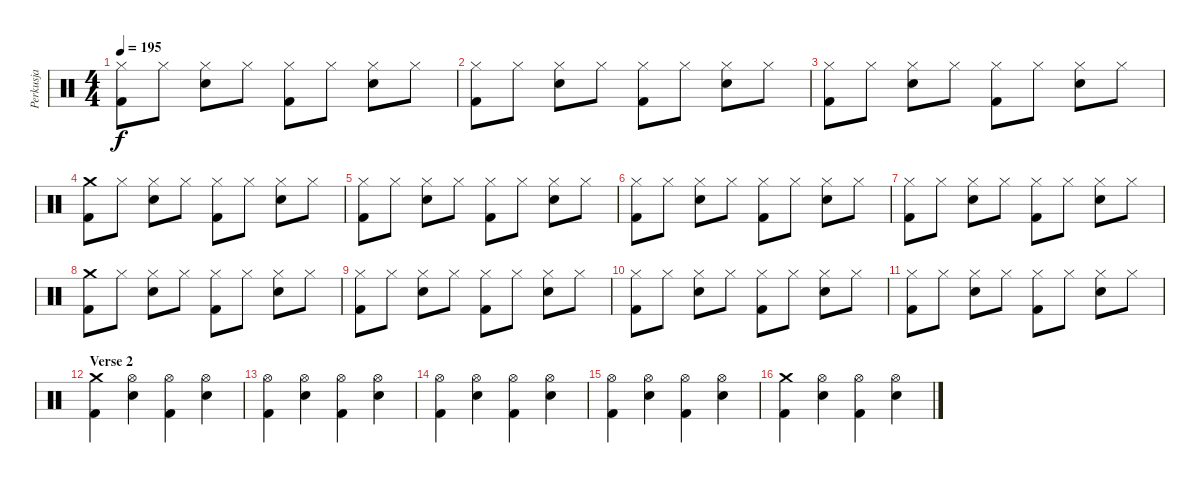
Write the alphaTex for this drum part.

\track ("Perkusja" "Perkusja") {instrument percussion}
\staff {score}
\articulation defaults
\ts (4 4)
\tempo 195
\clef neutral
\ks c
("Hi-Hat (closed)" "Kick (hit) 2").8{dy f} "Hi-Hat (closed)".8 ("Hi-Hat (closed)" "Snare (hit) 2").8 "Hi-Hat (closed)".8 ("Hi-Hat (closed)" "Kick (hit) 2").8 "Hi-Hat (closed)".8 ("Hi-Hat (closed)" "Snare (hit) 2").8 "Hi-Hat (closed)".8 |
("Hi-Hat (closed)" "Kick (hit) 2").8 "Hi-Hat (closed)".8 ("Hi-Hat (closed)" "Snare (hit) 2").8 "Hi-Hat (closed)".8 ("Hi-Hat (closed)" "Kick (hit) 2").8 "Hi-Hat (closed)".8 ("Hi-Hat (closed)" "Snare (hit) 2").8 "Hi-Hat (closed)".8 |
("Hi-Hat (closed)" "Kick (hit) 2").8 "Hi-Hat (closed)".8 ("Hi-Hat (closed)" "Snare (hit) 2").8 "Hi-Hat (closed)".8 ("Hi-Hat (closed)" "Kick (hit) 2").8 "Hi-Hat (closed)".8 ("Hi-Hat (closed)" "Snare (hit) 2").8 "Hi-Hat (closed)".8 |
("Crash medium (hit)" "Kick (hit) 2").8 "Hi-Hat (closed)".8 ("Hi-Hat (closed)" "Snare (hit) 2").8 "Hi-Hat (closed)".8 ("Hi-Hat (closed)" "Kick (hit) 2").8 "Hi-Hat (closed)".8 ("Hi-Hat (closed)" "Snare (hit) 2").8 "Hi-Hat (closed)".8 |
("Hi-Hat (closed)" "Kick (hit) 2").8 "Hi-Hat (closed)".8 ("Hi-Hat (closed)" "Snare (hit) 2").8 "Hi-Hat (closed)".8 ("Hi-Hat (closed)" "Kick (hit) 2").8 "Hi-Hat (closed)".8 ("Hi-Hat (closed)" "Snare (hit) 2").8 "Hi-Hat (closed)".8 |
("Hi-Hat (closed)" "Kick (hit) 2").8 "Hi-Hat (closed)".8 ("Hi-Hat (closed)" "Snare (hit) 2").8 "Hi-Hat (closed)".8 ("Hi-Hat (closed)" "Kick (hit) 2").8 "Hi-Hat (closed)".8 ("Hi-Hat (closed)" "Snare (hit) 2").8 "Hi-Hat (closed)".8 |
("Hi-Hat (closed)" "Kick (hit) 2").8 "Hi-Hat (closed)".8 ("Hi-Hat (closed)" "Snare (hit) 2").8 "Hi-Hat (closed)".8 ("Hi-Hat (closed)" "Kick (hit) 2").8 "Hi-Hat (closed)".8 ("Hi-Hat (closed)" "Snare (hit) 2").8 "Hi-Hat (closed)".8 |
("Crash medium (hit)" "Kick (hit) 2").8 "Hi-Hat (closed)".8 ("Hi-Hat (closed)" "Snare (hit) 2").8 "Hi-Hat (closed)".8 ("Hi-Hat (closed)" "Kick (hit) 2").8 "Hi-Hat (closed)".8 ("Hi-Hat (closed)" "Snare (hit) 2").8 "Hi-Hat (closed)".8 |
("Hi-Hat (closed)" "Kick (hit) 2").8 "Hi-Hat (closed)".8 ("Hi-Hat (closed)" "Snare (hit) 2").8 "Hi-Hat (closed)".8 ("Hi-Hat (closed)" "Kick (hit) 2").8 "Hi-Hat (closed)".8 ("Hi-Hat (closed)" "Snare (hit) 2").8 "Hi-Hat (closed)".8 |
("Hi-Hat (closed)" "Kick (hit) 2").8 "Hi-Hat (closed)".8 ("Hi-Hat (closed)" "Snare (hit) 2").8 "Hi-Hat (closed)".8 ("Hi-Hat (closed)" "Kick (hit) 2").8 "Hi-Hat (closed)".8 ("Hi-Hat (closed)" "Snare (hit) 2").8 "Hi-Hat (closed)".8 |
("Hi-Hat (closed)" "Kick (hit) 2").8 "Hi-Hat (closed)".8 ("Hi-Hat (closed)" "Snare (hit) 2").8 "Hi-Hat (closed)".8 ("Hi-Hat (closed)" "Kick (hit) 2").8 "Hi-Hat (closed)".8 ("Hi-Hat (closed)" "Snare (hit) 2").8 "Hi-Hat (closed)".8 |
\section ("" "Verse 2")
("Crash medium (hit)" "Kick (hit) 2").4 ("Hi-Hat (open)" "Snare (hit) 2").4 ("Hi-Hat (open)" "Kick (hit) 2").4 ("Hi-Hat (open)" "Snare (hit) 2").4 |
("Hi-Hat (open)" "Kick (hit) 2").4 ("Hi-Hat (open)" "Snare (hit) 2").4 ("Hi-Hat (open)" "Kick (hit) 2").4 ("Hi-Hat (open)" "Snare (hit) 2").4 |
("Hi-Hat (open)" "Kick (hit) 2").4 ("Hi-Hat (open)" "Snare (hit) 2").4 ("Hi-Hat (open)" "Kick (hit) 2").4 ("Hi-Hat (open)" "Snare (hit) 2").4 |
("Hi-Hat (open)" "Kick (hit) 2").4 ("Hi-Hat (open)" "Snare (hit) 2").4 ("Hi-Hat (open)" "Kick (hit) 2").4 ("Hi-Hat (open)" "Snare (hit) 2").4 |
("Crash medium (hit)" "Kick (hit) 2").4 ("Hi-Hat (open)" "Snare (hit) 2").4 ("Hi-Hat (open)" "Kick (hit) 2").4 ("Hi-Hat (open)" "Snare (hit) 2").4
